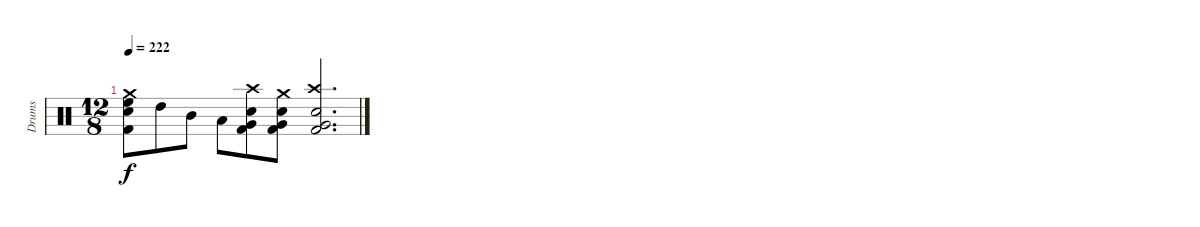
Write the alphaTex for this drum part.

\track ("Drums" "Drums") {instrument percussion}
\staff {score}
\articulation defaults
\ts (12 8)
\tempo 222
\clef neutral
\ks c
("Crash medium (hit)" "High Floor Tom (hit)" "Snare (hit) 2" "Kick (hit) 2").8{dy f} "High Tom (hit)".8 "Mid Tom (hit)".8 "Low Tom (hit)".8 ("Crash high (hit)" "Very Low Tom (hit)" "Snare (hit) 2" "Kick (hit) 2").8 ("Crash medium (hit)" "Very Low Tom (hit)" "Snare (hit) 2" "Kick (hit) 2").8 ("Crash high (hit)" "Very Low Tom (hit)" "Snare (hit) 2" "Kick (hit) 2").2{d}
